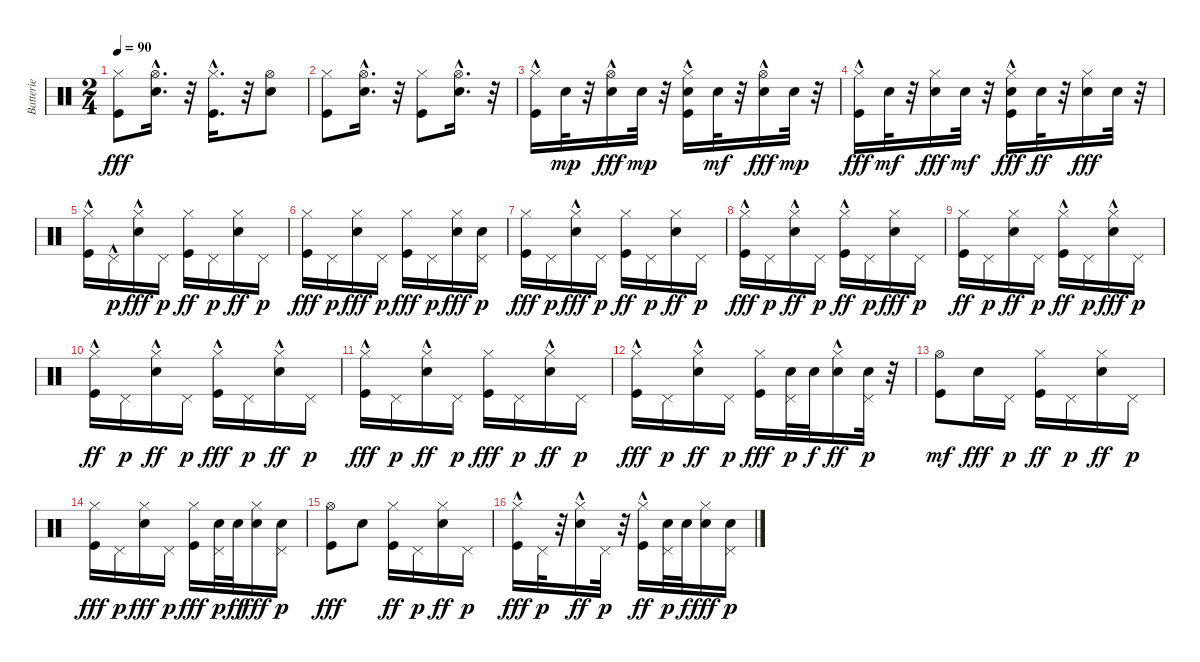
\track ("Batterie" "Batterie") {instrument percussion}
\staff {score}
\articulation defaults
\ts (2 4)
\tempo 90
\clef neutral
\ks c
("Kick (hit)" "Hi-Hat (closed)").8{dy fff} ("Snare (hit) 2" "Hi-Hat (open)"{hac}).16{d} r.32 ("Kick (hit)" "Hi-Hat (closed)"{hac}).16{d} r.32 ("Snare (hit) 2" "Hi-Hat (open)").8 |
("Kick (hit)" "Hi-Hat (closed)").8 ("Snare (hit) 2" "Hi-Hat (open)"{hac}).16{d} r.32 ("Kick (hit)" "Hi-Hat (closed)").8 ("Snare (hit) 2" "Hi-Hat (open)"{hac}).16{d} r.32 |
("Kick (hit)" "Hi-Hat (closed)"{hac}).16 "Snare (hit) 2".32{dy mp} r.32 ("Snare (hit) 2" "Hi-Hat (open)"{hac}).16{dy fff} "Snare (hit) 2".32{dy mp} r.32 ("Kick (hit)" "Hi-Hat (closed)"{hac} "Snare (hit) 2").16 "Snare (hit) 2".32{dy mf} r.32 ("Snare (hit) 2" "Hi-Hat (open)"{hac}).16{dy fff} "Snare (hit) 2".32{dy mp} r.32 |
("Kick (hit)" "Hi-Hat (closed)"{hac}).16{dy fff} "Snare (hit) 2".32{dy mf} r.32 ("Snare (hit) 2" "Hi-Hat (closed)").16{dy fff} "Snare (hit) 2".32{dy mf} r.32 ("Kick (hit)" "Hi-Hat (closed)"{hac} "Snare (hit) 2").16{dy fff} "Snare (hit) 2".32{dy ff} r.32 ("Snare (hit) 2" "Hi-Hat (closed)").16{dy fff} "Snare (hit) 2".32 r.32 |
("Kick (hit)" "Hi-Hat (closed)"{hac}).16 "Pedal Hi-Hat (hit)"{hac}.16{dy p} ("Snare (hit) 2" "Hi-Hat (closed)"{hac}).16{dy fff} "Pedal Hi-Hat (hit)".16{dy p} ("Kick (hit)" "Hi-Hat (closed)").16{dy ff} "Pedal Hi-Hat (hit)".16{dy p} ("Snare (hit) 2" "Hi-Hat (closed)").16{dy ff} "Pedal Hi-Hat (hit)".16{dy p} |
("Kick (hit)" "Hi-Hat (closed)").16{dy fff} "Pedal Hi-Hat (hit)".16{dy p} ("Snare (hit) 2" "Hi-Hat (closed)").16{dy fff} "Pedal Hi-Hat (hit)".16{dy p} ("Kick (hit)" "Hi-Hat (closed)").16{dy fff} "Pedal Hi-Hat (hit)".16{dy p} ("Snare (hit) 2" "Hi-Hat (closed)").16{dy fff} ("Snare (hit) 2" "Pedal Hi-Hat (hit)").16{dy p} |
("Kick (hit)" "Hi-Hat (closed)").16{dy fff} "Pedal Hi-Hat (hit)".16{dy p} ("Snare (hit) 2" "Hi-Hat (closed)"{hac}).16{dy fff} "Pedal Hi-Hat (hit)".16{dy p} ("Kick (hit)" "Hi-Hat (closed)").16{dy ff} "Pedal Hi-Hat (hit)".16{dy p} ("Snare (hit) 2" "Hi-Hat (closed)").16{dy ff} "Pedal Hi-Hat (hit)".16{dy p} |
("Kick (hit)" "Hi-Hat (closed)"{hac}).16{dy fff} "Pedal Hi-Hat (hit)".16{dy p} ("Snare (hit) 2" "Hi-Hat (closed)"{hac}).16{dy ff} "Pedal Hi-Hat (hit)".16{dy p} ("Kick (hit)" "Hi-Hat (closed)"{hac}).16{dy ff} "Pedal Hi-Hat (hit)".16{dy p} ("Snare (hit) 2" "Hi-Hat (closed)").16{dy fff} "Pedal Hi-Hat (hit)".16{dy p} |
("Kick (hit)" "Hi-Hat (closed)").16{dy ff} "Pedal Hi-Hat (hit)".16{dy p} ("Snare (hit) 2" "Hi-Hat (closed)").16{dy ff} "Pedal Hi-Hat (hit)".16{dy p} ("Kick (hit)" "Hi-Hat (closed)"{hac}).16{dy ff} "Pedal Hi-Hat (hit)".16{dy p} ("Snare (hit) 2" "Hi-Hat (closed)"{hac}).16{dy fff} "Pedal Hi-Hat (hit)".16{dy p} |
("Kick (hit)" "Hi-Hat (closed)"{hac}).16{dy ff} "Pedal Hi-Hat (hit)".16{dy p} ("Snare (hit) 2" "Hi-Hat (closed)"{hac}).16{dy ff} "Pedal Hi-Hat (hit)".16{dy p} ("Kick (hit)" "Hi-Hat (closed)"{hac}).16{dy fff} "Pedal Hi-Hat (hit)".16{dy p} ("Snare (hit) 2" "Hi-Hat (closed)"{hac}).16{dy ff} "Pedal Hi-Hat (hit)".16{dy p} |
("Kick (hit)" "Hi-Hat (closed)"{hac}).16{dy fff} "Pedal Hi-Hat (hit)".16{dy p} ("Snare (hit) 2" "Hi-Hat (closed)"{hac}).16{dy ff} "Pedal Hi-Hat (hit)".16{dy p} ("Kick (hit)" "Hi-Hat (closed)").16{dy fff} "Pedal Hi-Hat (hit)".16{dy p} ("Snare (hit) 2" "Hi-Hat (closed)"{hac}).16{dy ff} "Pedal Hi-Hat (hit)".16{dy p} |
("Kick (hit)" "Hi-Hat (closed)"{hac}).16{dy fff} "Pedal Hi-Hat (hit)".16{dy p} ("Snare (hit) 2" "Hi-Hat (closed)"{hac}).16{dy ff} "Pedal Hi-Hat (hit)".16{dy p} ("Kick (hit)" "Hi-Hat (closed)").16{dy fff} ("Snare (hit) 2" "Pedal Hi-Hat (hit)").32{dy p} "Snare (hit) 2".32{dy f} ("Snare (hit) 2" "Hi-Hat (closed)"{hac}).16{dy ff} ("Snare (hit) 2" "Pedal Hi-Hat (hit)").32{dy p} r.32 |
("Kick (hit)" "Hi-Hat (open)").8{dy mf} "Snare (hit) 2".16{dy fff} "Pedal Hi-Hat (hit)".16{dy p} ("Kick (hit)" "Hi-Hat (closed)").16{dy ff} "Pedal Hi-Hat (hit)".16{dy p} ("Snare (hit) 2" "Hi-Hat (closed)").16{dy ff} "Pedal Hi-Hat (hit)".16{dy p} |
("Kick (hit)" "Hi-Hat (closed)").16{dy fff} "Pedal Hi-Hat (hit)".16{dy p} ("Snare (hit) 2" "Hi-Hat (closed)").16{dy fff} "Pedal Hi-Hat (hit)".16{dy p} ("Kick (hit)" "Hi-Hat (closed)").16{dy fff} ("Snare (hit) 2" "Pedal Hi-Hat (hit)").32{dy p} "Snare (hit) 2".32{dy ff} ("Snare (hit) 2" "Hi-Hat (closed)").16{dy fff} ("Snare (hit) 2" "Pedal Hi-Hat (hit)").16{dy p} |
("Kick (hit)" "Hi-Hat (open)").8{dy fff} "Snare (hit) 2".8 ("Kick (hit)" "Hi-Hat (closed)").16{dy ff} "Pedal Hi-Hat (hit)".16{dy p} ("Snare (hit) 2" "Hi-Hat (closed)").16{dy ff} "Pedal Hi-Hat (hit)".16{dy p} |
("Kick (hit)" "Hi-Hat (closed)"{hac}).16{dy fff} "Pedal Hi-Hat (hit)".32{dy p} r.32 ("Snare (hit) 2" "Hi-Hat (closed)"{hac}).16{dy ff} "Pedal Hi-Hat (hit)".32{dy p} r.32 ("Kick (hit)" "Hi-Hat (closed)"{hac}).16{dy ff} ("Snare (hit) 2" "Pedal Hi-Hat (hit)").32{dy p} "Snare (hit) 2".32{dy f} ("Snare (hit) 2" "Hi-Hat (closed)").16{dy fff} ("Snare (hit) 2" "Pedal Hi-Hat (hit)").16{dy p}
